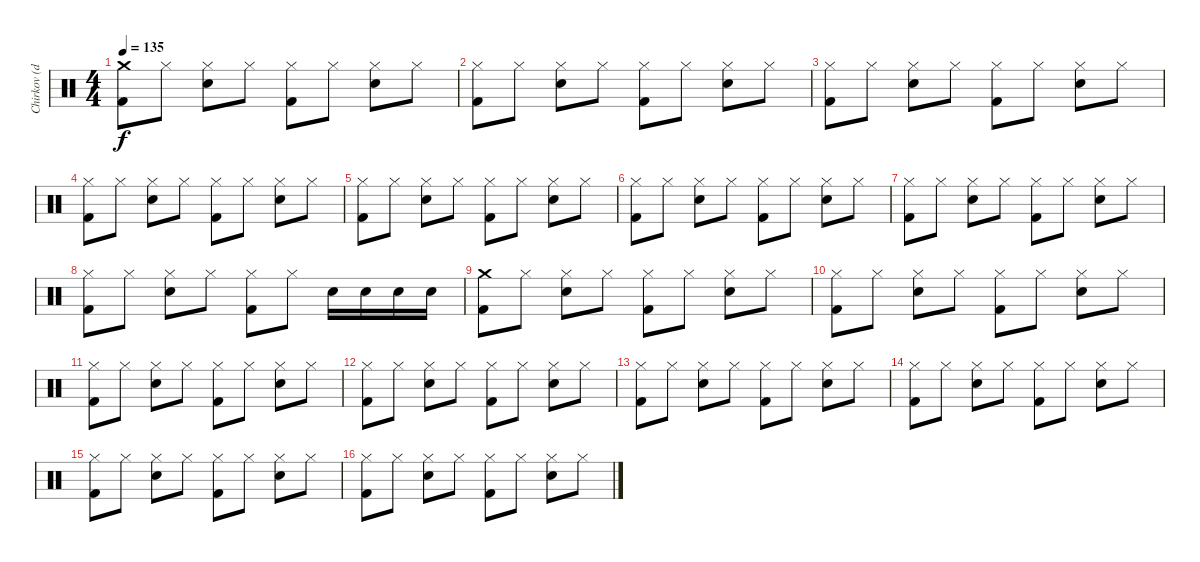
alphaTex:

\track ("Chirkov (drums)" "Chirkov (d") {instrument percussion}
\staff {score}
\articulation defaults
\ts (4 4)
\tempo 135
\clef neutral
\ks c
("Crash medium (hit)" "Kick (hit) 2").8{dy f} "Hi-Hat (closed)".8 ("Hi-Hat (closed)" "Snare (hit) 2").8 "Hi-Hat (closed)".8 ("Hi-Hat (closed)" "Kick (hit) 2").8 "Hi-Hat (closed)".8 ("Hi-Hat (closed)" "Snare (hit) 2").8 "Hi-Hat (closed)".8 |
("Hi-Hat (closed)" "Kick (hit) 2").8 "Hi-Hat (closed)".8 ("Hi-Hat (closed)" "Snare (hit) 2").8 "Hi-Hat (closed)".8 ("Hi-Hat (closed)" "Kick (hit) 2").8 "Hi-Hat (closed)".8 ("Hi-Hat (closed)" "Snare (hit) 2").8 "Hi-Hat (closed)".8 |
("Hi-Hat (closed)" "Kick (hit) 2").8 "Hi-Hat (closed)".8 ("Hi-Hat (closed)" "Snare (hit) 2").8 "Hi-Hat (closed)".8 ("Hi-Hat (closed)" "Kick (hit) 2").8 "Hi-Hat (closed)".8 ("Hi-Hat (closed)" "Snare (hit) 2").8 "Hi-Hat (closed)".8 |
("Hi-Hat (closed)" "Kick (hit) 2").8 "Hi-Hat (closed)".8 ("Hi-Hat (closed)" "Snare (hit) 2").8 "Hi-Hat (closed)".8 ("Hi-Hat (closed)" "Kick (hit) 2").8 "Hi-Hat (closed)".8 ("Hi-Hat (closed)" "Snare (hit) 2").8 "Hi-Hat (closed)".8 |
("Hi-Hat (closed)" "Kick (hit) 2").8 "Hi-Hat (closed)".8 ("Hi-Hat (closed)" "Snare (hit) 2").8 "Hi-Hat (closed)".8 ("Hi-Hat (closed)" "Kick (hit) 2").8 "Hi-Hat (closed)".8 ("Hi-Hat (closed)" "Snare (hit) 2").8 "Hi-Hat (closed)".8 |
("Hi-Hat (closed)" "Kick (hit) 2").8 "Hi-Hat (closed)".8 ("Hi-Hat (closed)" "Snare (hit) 2").8 "Hi-Hat (closed)".8 ("Hi-Hat (closed)" "Kick (hit) 2").8 "Hi-Hat (closed)".8 ("Hi-Hat (closed)" "Snare (hit) 2").8 "Hi-Hat (closed)".8 |
("Hi-Hat (closed)" "Kick (hit) 2").8 "Hi-Hat (closed)".8 ("Hi-Hat (closed)" "Snare (hit) 2").8 "Hi-Hat (closed)".8 ("Hi-Hat (closed)" "Kick (hit) 2").8 "Hi-Hat (closed)".8 ("Hi-Hat (closed)" "Snare (hit) 2").8 "Hi-Hat (closed)".8 |
("Hi-Hat (closed)" "Kick (hit) 2").8 "Hi-Hat (closed)".8 ("Hi-Hat (closed)" "Snare (hit) 2").8 "Hi-Hat (closed)".8 ("Hi-Hat (closed)" "Kick (hit) 2").8 "Hi-Hat (closed)".8 "Snare (hit) 2".16 "Snare (hit) 2".16 "Snare (hit) 2".16 "Snare (hit) 2".16 |
("Crash medium (hit)" "Kick (hit) 2").8 "Hi-Hat (closed)".8 ("Hi-Hat (closed)" "Snare (hit) 2").8 "Hi-Hat (closed)".8 ("Hi-Hat (closed)" "Kick (hit) 2").8 "Hi-Hat (closed)".8 ("Hi-Hat (closed)" "Snare (hit) 2").8 "Hi-Hat (closed)".8 |
("Hi-Hat (closed)" "Kick (hit) 2").8 "Hi-Hat (closed)".8 ("Hi-Hat (closed)" "Snare (hit) 2").8 "Hi-Hat (closed)".8 ("Hi-Hat (closed)" "Kick (hit) 2").8 "Hi-Hat (closed)".8 ("Hi-Hat (closed)" "Snare (hit) 2").8 "Hi-Hat (closed)".8 |
("Hi-Hat (closed)" "Kick (hit) 2").8 "Hi-Hat (closed)".8 ("Hi-Hat (closed)" "Snare (hit) 2").8 "Hi-Hat (closed)".8 ("Hi-Hat (closed)" "Kick (hit) 2").8 "Hi-Hat (closed)".8 ("Hi-Hat (closed)" "Snare (hit) 2").8 "Hi-Hat (closed)".8 |
("Hi-Hat (closed)" "Kick (hit) 2").8 "Hi-Hat (closed)".8 ("Hi-Hat (closed)" "Snare (hit) 2").8 "Hi-Hat (closed)".8 ("Hi-Hat (closed)" "Kick (hit) 2").8 "Hi-Hat (closed)".8 ("Hi-Hat (closed)" "Snare (hit) 2").8 "Hi-Hat (closed)".8 |
("Hi-Hat (closed)" "Kick (hit) 2").8 "Hi-Hat (closed)".8 ("Hi-Hat (closed)" "Snare (hit) 2").8 "Hi-Hat (closed)".8 ("Hi-Hat (closed)" "Kick (hit) 2").8 "Hi-Hat (closed)".8 ("Hi-Hat (closed)" "Snare (hit) 2").8 "Hi-Hat (closed)".8 |
("Hi-Hat (closed)" "Kick (hit) 2").8 "Hi-Hat (closed)".8 ("Hi-Hat (closed)" "Snare (hit) 2").8 "Hi-Hat (closed)".8 ("Hi-Hat (closed)" "Kick (hit) 2").8 "Hi-Hat (closed)".8 ("Hi-Hat (closed)" "Snare (hit) 2").8 "Hi-Hat (closed)".8 |
("Hi-Hat (closed)" "Kick (hit) 2").8 "Hi-Hat (closed)".8 ("Hi-Hat (closed)" "Snare (hit) 2").8 "Hi-Hat (closed)".8 ("Hi-Hat (closed)" "Kick (hit) 2").8 "Hi-Hat (closed)".8 ("Hi-Hat (closed)" "Snare (hit) 2").8 "Hi-Hat (closed)".8 |
("Hi-Hat (closed)" "Kick (hit) 2").8 "Hi-Hat (closed)".8 ("Hi-Hat (closed)" "Snare (hit) 2").8 "Hi-Hat (closed)".8 ("Hi-Hat (closed)" "Kick (hit) 2").8 "Hi-Hat (closed)".8 ("Hi-Hat (closed)" "Snare (hit) 2").8 "Hi-Hat (closed)".8
